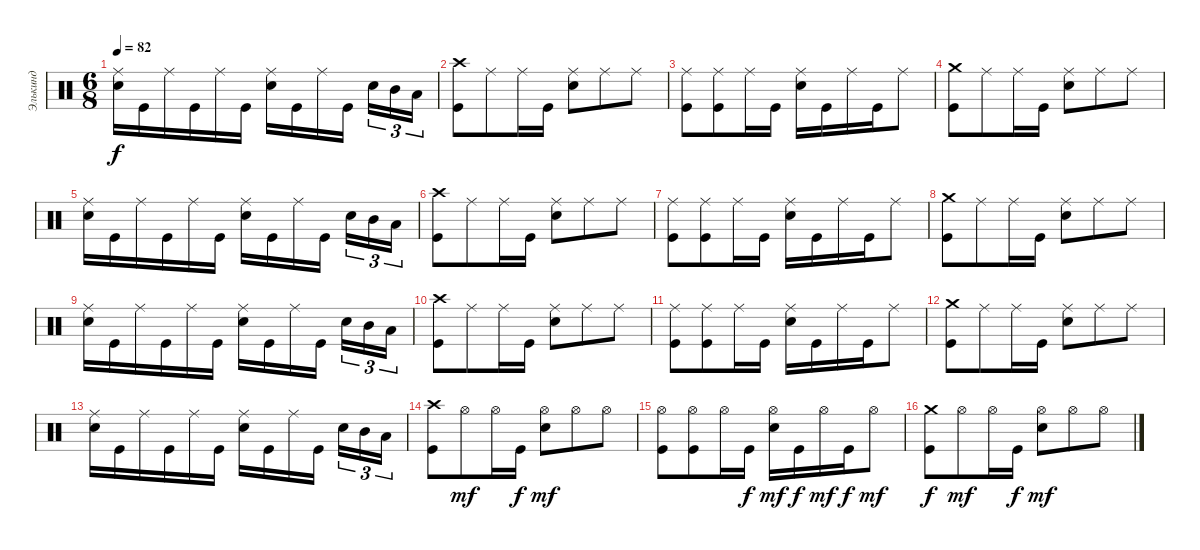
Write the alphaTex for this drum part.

\track ("Элькинд" "Элькинд") {instrument percussion}
\staff {score}
\articulation defaults
\ts (6 8)
\tempo 82
\clef neutral
\ks c
("Electric Snare (hit)" "Ride (middle)").16{dy f} "Kick (hit)".16 "Ride (middle)".16 "Kick (hit)".16 "Ride (middle)".16 "Kick (hit)".16 ("Ride (middle)" "Electric Snare (hit)").16 "Kick (hit)".16 "Ride (middle)".16 "Kick (hit)".16{beam splitsecondary} "Electric Snare (hit)".16{tu (3 2)} "Mid Tom (hit)".16{tu (3 2)} "Low Tom (hit)".16{tu (3 2)} |
("Kick (hit)" "Crash high (hit)").8 "Ride (middle)".8 "Ride (middle)".16 "Kick (hit)".16 ("Electric Snare (hit)" "Ride (middle)").8 "Ride (middle)".8 "Ride (middle)".8 |
("Ride (middle)" "Kick (hit)").8 ("Ride (middle)" "Kick (hit)").8 "Ride (middle)".16 "Kick (hit)".16 ("Ride (middle)" "Electric Snare (hit)").16 "Kick (hit)".16 "Ride (middle)".16 "Kick (hit)".16 "Ride (middle)".8 |
("Kick (hit)" "Crash medium (hit)").8 "Ride (middle)".8 "Ride (middle)".16 "Kick (hit)".16 ("Electric Snare (hit)" "Ride (middle)").8 "Ride (middle)".8 "Ride (middle)".8 |
("Electric Snare (hit)" "Ride (middle)").16 "Kick (hit)".16 "Ride (middle)".16 "Kick (hit)".16 "Ride (middle)".16 "Kick (hit)".16 ("Ride (middle)" "Electric Snare (hit)").16 "Kick (hit)".16 "Ride (middle)".16 "Kick (hit)".16{beam splitsecondary} "Electric Snare (hit)".16{tu (3 2)} "Mid Tom (hit)".16{tu (3 2)} "Low Tom (hit)".16{tu (3 2)} |
("Kick (hit)" "Crash high (hit)").8 "Ride (middle)".8 "Ride (middle)".16 "Kick (hit)".16 ("Electric Snare (hit)" "Ride (middle)").8 "Ride (middle)".8 "Ride (middle)".8 |
("Ride (middle)" "Kick (hit)").8 ("Ride (middle)" "Kick (hit)").8 "Ride (middle)".16 "Kick (hit)".16 ("Ride (middle)" "Electric Snare (hit)").16 "Kick (hit)".16 "Ride (middle)".16 "Kick (hit)".16 "Ride (middle)".8 |
("Kick (hit)" "Crash medium (hit)").8 "Ride (middle)".8 "Ride (middle)".16 "Kick (hit)".16 ("Electric Snare (hit)" "Ride (middle)").8 "Ride (middle)".8 "Ride (middle)".8 |
("Electric Snare (hit)" "Ride (middle)").16 "Kick (hit)".16 "Ride (middle)".16 "Kick (hit)".16 "Ride (middle)".16 "Kick (hit)".16 ("Ride (middle)" "Electric Snare (hit)").16 "Kick (hit)".16 "Ride (middle)".16 "Kick (hit)".16{beam splitsecondary} "Electric Snare (hit)".16{tu (3 2)} "Mid Tom (hit)".16{tu (3 2)} "Low Tom (hit)".16{tu (3 2)} |
("Kick (hit)" "Crash high (hit)").8 "Ride (middle)".8 "Ride (middle)".16 "Kick (hit)".16 ("Electric Snare (hit)" "Ride (middle)").8 "Ride (middle)".8 "Ride (middle)".8 |
("Ride (middle)" "Kick (hit)").8 ("Ride (middle)" "Kick (hit)").8 "Ride (middle)".16 "Kick (hit)".16 ("Ride (middle)" "Electric Snare (hit)").16 "Kick (hit)".16 "Ride (middle)".16 "Kick (hit)".16 "Ride (middle)".8 |
("Kick (hit)" "Crash medium (hit)").8 "Ride (middle)".8 "Ride (middle)".16 "Kick (hit)".16 ("Electric Snare (hit)" "Ride (middle)").8 "Ride (middle)".8 "Ride (middle)".8 |
("Electric Snare (hit)" "Ride (middle)").16 "Kick (hit)".16 "Ride (middle)".16 "Kick (hit)".16 "Ride (middle)".16 "Kick (hit)".16 ("Ride (middle)" "Electric Snare (hit)").16 "Kick (hit)".16 "Ride (middle)".16 "Kick (hit)".16{beam splitsecondary} "Electric Snare (hit)".16{tu (3 2)} "Mid Tom (hit)".16{tu (3 2)} "Low Tom (hit)".16{tu (3 2)} |
("Kick (hit)" "Crash high (hit)").8 "Hi-Hat (open)".8{dy mf} "Hi-Hat (open)".16 "Kick (hit)".16{dy f} ("Electric Snare (hit)" "Hi-Hat (open)").8{dy mf} "Hi-Hat (open)".8 "Hi-Hat (open)".8 |
("Hi-Hat (open)" "Kick (hit)").8 ("Hi-Hat (open)" "Kick (hit)").8 "Hi-Hat (open)".16 "Kick (hit)".16{dy f} ("Hi-Hat (open)" "Electric Snare (hit)").16{dy mf} "Kick (hit)".16{dy f} "Hi-Hat (open)".16{dy mf} "Kick (hit)".16{dy f} "Hi-Hat (open)".8{dy mf} |
("Kick (hit)" "Crash medium (hit)").8{dy f} "Hi-Hat (open)".8{dy mf} "Hi-Hat (open)".16 "Kick (hit)".16{dy f} ("Electric Snare (hit)" "Hi-Hat (open)").8{dy mf} "Hi-Hat (open)".8 "Hi-Hat (open)".8
